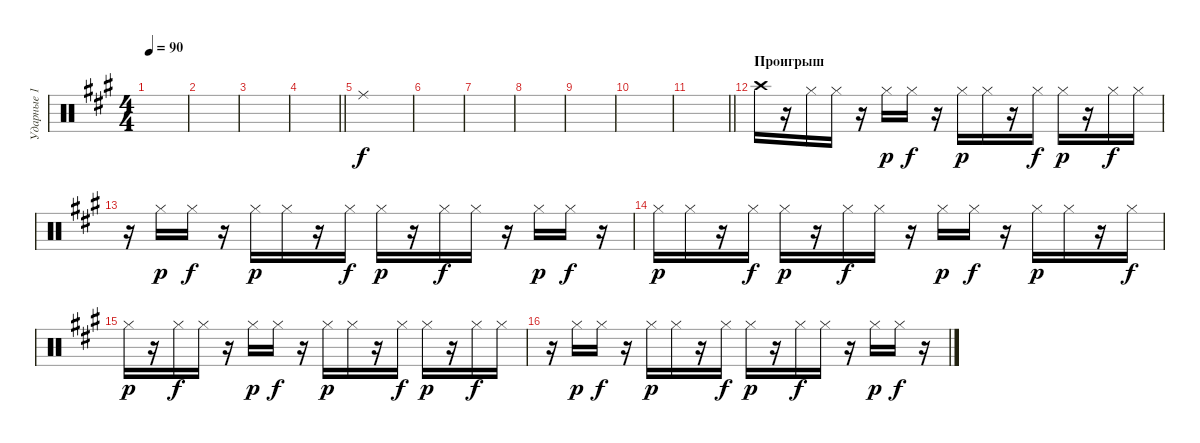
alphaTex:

\track ("Ударные 1" "Ударные 1") {instrument percussion}
\staff {score}
\articulation defaults
\ts (4 4)
\tempo 90
\clef neutral
\ks f#minor
|
|
|
\barLineRight lightlight
|
"Ride (middle)".1 |
|
|
|
|
|
\barLineRight lightlight
|
\section ("" "Проигрыш")
"Crash high (hit)".16 r.16 "Hi-Hat (closed)".16 "Hi-Hat (closed)".16 r.16 "Hi-Hat (closed)".16{dy p} "Hi-Hat (closed)".16{dy f} r.16 "Hi-Hat (closed)".16{dy p} "Hi-Hat (closed)".16 r.16 "Hi-Hat (closed)".16{dy f} "Hi-Hat (closed)".16{dy p} r.16 "Hi-Hat (closed)".16{dy f} "Hi-Hat (closed)".16 |
r.16 "Hi-Hat (closed)".16{dy p} "Hi-Hat (closed)".16{dy f} r.16 "Hi-Hat (closed)".16{dy p} "Hi-Hat (closed)".16 r.16 "Hi-Hat (closed)".16{dy f} "Hi-Hat (closed)".16{dy p} r.16 "Hi-Hat (closed)".16{dy f} "Hi-Hat (closed)".16 r.16 "Hi-Hat (closed)".16{dy p} "Hi-Hat (closed)".16{dy f} r.16 |
"Hi-Hat (closed)".16{dy p} "Hi-Hat (closed)".16 r.16 "Hi-Hat (closed)".16{dy f} "Hi-Hat (closed)".16{dy p} r.16 "Hi-Hat (closed)".16{dy f} "Hi-Hat (closed)".16 r.16 "Hi-Hat (closed)".16{dy p} "Hi-Hat (closed)".16{dy f} r.16 "Hi-Hat (closed)".16{dy p} "Hi-Hat (closed)".16 r.16 "Hi-Hat (closed)".16{dy f} |
"Hi-Hat (closed)".16{dy p} r.16 "Hi-Hat (closed)".16{dy f} "Hi-Hat (closed)".16 r.16 "Hi-Hat (closed)".16{dy p} "Hi-Hat (closed)".16{dy f} r.16 "Hi-Hat (closed)".16{dy p} "Hi-Hat (closed)".16 r.16 "Hi-Hat (closed)".16{dy f} "Hi-Hat (closed)".16{dy p} r.16 "Hi-Hat (closed)".16{dy f} "Hi-Hat (closed)".16 |
r.16 "Hi-Hat (closed)".16{dy p} "Hi-Hat (closed)".16{dy f} r.16 "Hi-Hat (closed)".16{dy p} "Hi-Hat (closed)".16 r.16 "Hi-Hat (closed)".16{dy f} "Hi-Hat (closed)".16{dy p} r.16 "Hi-Hat (closed)".16{dy f} "Hi-Hat (closed)".16 r.16 "Hi-Hat (closed)".16{dy p} "Hi-Hat (closed)".16{dy f} r.16
